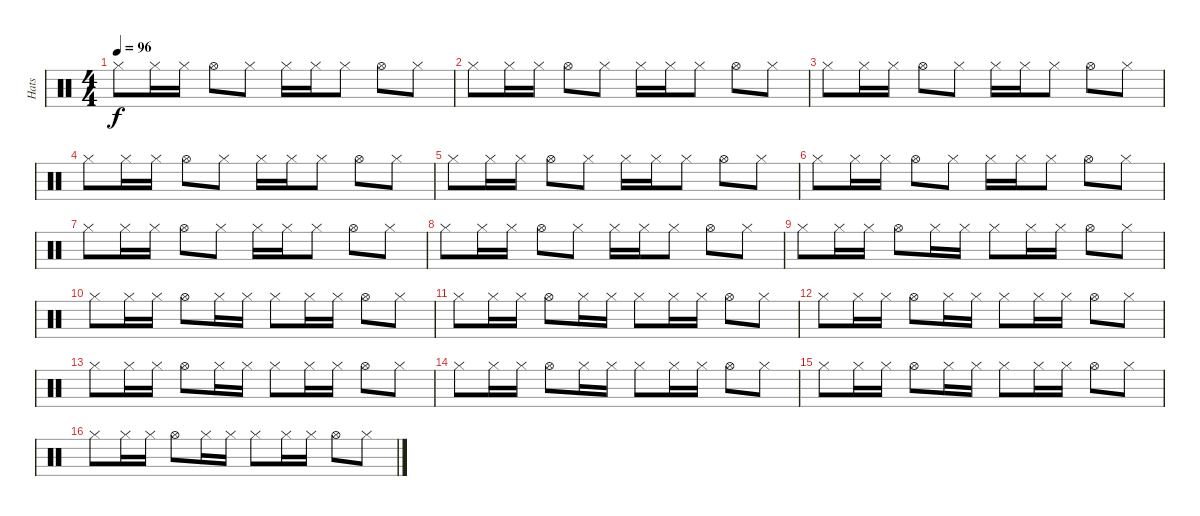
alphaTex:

\track ("Hats" "Hats") {instrument percussion}
\staff {score}
\articulation defaults
\ts (4 4)
\tempo 96
\clef neutral
\ks c "Hi-Hat (closed)".8{dy f} "Hi-Hat (closed)".16 "Hi-Hat (closed)".16 "Hi-Hat (open)".8 "Hi-Hat (closed)".8 "Hi-Hat (closed)".16 "Hi-Hat (closed)".16 "Hi-Hat (closed)".8 "Hi-Hat (open)".8 "Hi-Hat (closed)".8
|
"Hi-Hat (closed)".8 "Hi-Hat (closed)".16 "Hi-Hat (closed)".16 "Hi-Hat (open)".8 "Hi-Hat (closed)".8 "Hi-Hat (closed)".16 "Hi-Hat (closed)".16 "Hi-Hat (closed)".8 "Hi-Hat (open)".8 "Hi-Hat (closed)".8 |
"Hi-Hat (closed)".8 "Hi-Hat (closed)".16 "Hi-Hat (closed)".16 "Hi-Hat (open)".8 "Hi-Hat (closed)".8 "Hi-Hat (closed)".16 "Hi-Hat (closed)".16 "Hi-Hat (closed)".8 "Hi-Hat (open)".8 "Hi-Hat (closed)".8 |
"Hi-Hat (closed)".8 "Hi-Hat (closed)".16 "Hi-Hat (closed)".16 "Hi-Hat (open)".8 "Hi-Hat (closed)".8 "Hi-Hat (closed)".16 "Hi-Hat (closed)".16 "Hi-Hat (closed)".8 "Hi-Hat (open)".8 "Hi-Hat (closed)".8 |
"Hi-Hat (closed)".8 "Hi-Hat (closed)".16 "Hi-Hat (closed)".16 "Hi-Hat (open)".8 "Hi-Hat (closed)".8 "Hi-Hat (closed)".16 "Hi-Hat (closed)".16 "Hi-Hat (closed)".8 "Hi-Hat (open)".8 "Hi-Hat (closed)".8 |
"Hi-Hat (closed)".8 "Hi-Hat (closed)".16 "Hi-Hat (closed)".16 "Hi-Hat (open)".8 "Hi-Hat (closed)".8 "Hi-Hat (closed)".16 "Hi-Hat (closed)".16 "Hi-Hat (closed)".8 "Hi-Hat (open)".8 "Hi-Hat (closed)".8 |
"Hi-Hat (closed)".8 "Hi-Hat (closed)".16 "Hi-Hat (closed)".16 "Hi-Hat (open)".8 "Hi-Hat (closed)".8 "Hi-Hat (closed)".16 "Hi-Hat (closed)".16 "Hi-Hat (closed)".8 "Hi-Hat (open)".8 "Hi-Hat (closed)".8 |
"Hi-Hat (closed)".8 "Hi-Hat (closed)".16 "Hi-Hat (closed)".16 "Hi-Hat (open)".8 "Hi-Hat (closed)".8 "Hi-Hat (closed)".16 "Hi-Hat (closed)".16 "Hi-Hat (closed)".8 "Hi-Hat (open)".8 "Hi-Hat (closed)".8 |
"Hi-Hat (closed)".8 "Hi-Hat (closed)".16 "Hi-Hat (closed)".16 "Hi-Hat (open)".8 "Hi-Hat (closed)".16 "Hi-Hat (closed)".16 "Hi-Hat (closed)".8 "Hi-Hat (closed)".16 "Hi-Hat (closed)".16 "Hi-Hat (open)".8 "Hi-Hat (closed)".8 |
"Hi-Hat (closed)".8 "Hi-Hat (closed)".16 "Hi-Hat (closed)".16 "Hi-Hat (open)".8 "Hi-Hat (closed)".16 "Hi-Hat (closed)".16 "Hi-Hat (closed)".8 "Hi-Hat (closed)".16 "Hi-Hat (closed)".16 "Hi-Hat (open)".8 "Hi-Hat (closed)".8 |
"Hi-Hat (closed)".8 "Hi-Hat (closed)".16 "Hi-Hat (closed)".16 "Hi-Hat (open)".8 "Hi-Hat (closed)".16 "Hi-Hat (closed)".16 "Hi-Hat (closed)".8 "Hi-Hat (closed)".16 "Hi-Hat (closed)".16 "Hi-Hat (open)".8 "Hi-Hat (closed)".8 |
"Hi-Hat (closed)".8 "Hi-Hat (closed)".16 "Hi-Hat (closed)".16 "Hi-Hat (open)".8 "Hi-Hat (closed)".16 "Hi-Hat (closed)".16 "Hi-Hat (closed)".8 "Hi-Hat (closed)".16 "Hi-Hat (closed)".16 "Hi-Hat (open)".8 "Hi-Hat (closed)".8 |
"Hi-Hat (closed)".8 "Hi-Hat (closed)".16 "Hi-Hat (closed)".16 "Hi-Hat (open)".8 "Hi-Hat (closed)".16 "Hi-Hat (closed)".16 "Hi-Hat (closed)".8 "Hi-Hat (closed)".16 "Hi-Hat (closed)".16 "Hi-Hat (open)".8 "Hi-Hat (closed)".8 |
"Hi-Hat (closed)".8 "Hi-Hat (closed)".16 "Hi-Hat (closed)".16 "Hi-Hat (open)".8 "Hi-Hat (closed)".16 "Hi-Hat (closed)".16 "Hi-Hat (closed)".8 "Hi-Hat (closed)".16 "Hi-Hat (closed)".16 "Hi-Hat (open)".8 "Hi-Hat (closed)".8 |
"Hi-Hat (closed)".8 "Hi-Hat (closed)".16 "Hi-Hat (closed)".16 "Hi-Hat (open)".8 "Hi-Hat (closed)".16 "Hi-Hat (closed)".16 "Hi-Hat (closed)".8 "Hi-Hat (closed)".16 "Hi-Hat (closed)".16 "Hi-Hat (open)".8 "Hi-Hat (closed)".8 |
"Hi-Hat (closed)".8 "Hi-Hat (closed)".16 "Hi-Hat (closed)".16 "Hi-Hat (open)".8 "Hi-Hat (closed)".16 "Hi-Hat (closed)".16 "Hi-Hat (closed)".8 "Hi-Hat (closed)".16 "Hi-Hat (closed)".16 "Hi-Hat (open)".8 "Hi-Hat (closed)".8
